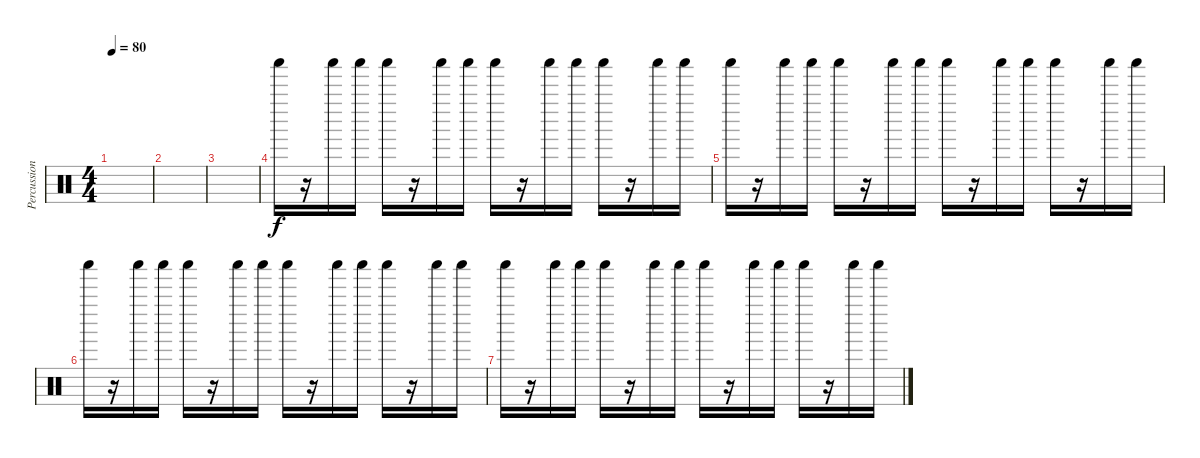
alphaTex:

\track ("Percussioni" "Percussion") {instrument percussion}
\staff {score}
\articulation defaults
\ts (4 4)
\tempo 80
\clef neutral
\ks c
|
|
|
"Shaker (hit)".16 r.16 "Shaker (hit)".16 "Shaker (hit)".16 "Shaker (hit)".16 r.16 "Shaker (hit)".16 "Shaker (hit)".16 "Shaker (hit)".16 r.16 "Shaker (hit)".16 "Shaker (hit)".16 "Shaker (hit)".16 r.16 "Shaker (hit)".16 "Shaker (hit)".16 |
"Shaker (hit)".16 r.16 "Shaker (hit)".16 "Shaker (hit)".16 "Shaker (hit)".16 r.16 "Shaker (hit)".16 "Shaker (hit)".16 "Shaker (hit)".16 r.16 "Shaker (hit)".16 "Shaker (hit)".16 "Shaker (hit)".16 r.16 "Shaker (hit)".16 "Shaker (hit)".16 |
"Shaker (hit)".16 r.16 "Shaker (hit)".16 "Shaker (hit)".16 "Shaker (hit)".16 r.16 "Shaker (hit)".16 "Shaker (hit)".16 "Shaker (hit)".16 r.16 "Shaker (hit)".16 "Shaker (hit)".16 "Shaker (hit)".16 r.16 "Shaker (hit)".16 "Shaker (hit)".16 |
"Shaker (hit)".16 r.16 "Shaker (hit)".16 "Shaker (hit)".16 "Shaker (hit)".16 r.16 "Shaker (hit)".16 "Shaker (hit)".16 "Shaker (hit)".16 r.16 "Shaker (hit)".16 "Shaker (hit)".16 "Shaker (hit)".16 r.16 "Shaker (hit)".16 "Shaker (hit)".16
